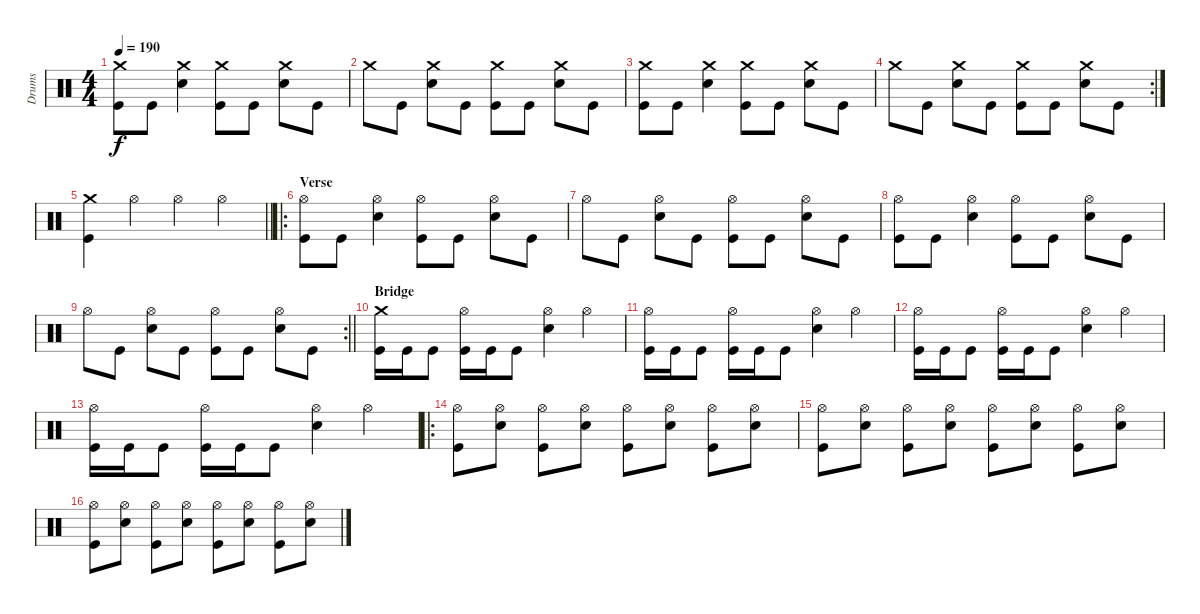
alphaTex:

\track ("Drums" "Drums") {instrument percussion}
\staff {score}
\articulation defaults
\ts (4 4)
\tempo 190
\clef neutral
\ks c
("Crash medium (hit)" "Kick (hit)").8{dy f} "Kick (hit)".8 ("Crash medium (hit)" "Snare (hit) 2").4 ("Crash medium (hit)" "Kick (hit)").8 "Kick (hit)".8 ("Crash medium (hit)" "Snare (hit) 2").8 "Kick (hit)".8 |
"Crash medium (hit)".8 "Kick (hit)".8 ("Crash medium (hit)" "Snare (hit) 2").8 "Kick (hit)".8 ("Crash medium (hit)" "Kick (hit)").8 "Kick (hit)".8 ("Crash medium (hit)" "Snare (hit) 2").8 "Kick (hit)".8 |
("Crash medium (hit)" "Kick (hit)").8 "Kick (hit)".8 ("Crash medium (hit)" "Snare (hit) 2").4 ("Crash medium (hit)" "Kick (hit)").8 "Kick (hit)".8 ("Crash medium (hit)" "Snare (hit) 2").8 "Kick (hit)".8 |
\rc 2 "Crash medium (hit)".8 "Kick (hit)".8
("Crash medium (hit)" "Snare (hit) 2").8 "Kick (hit)".8 ("Crash medium (hit)" "Kick (hit)").8 "Kick (hit)".8 ("Crash medium (hit)" "Snare (hit) 2").8 "Kick (hit)".8 |
\barLineRight lightlight
("Crash medium (hit)" "Kick (hit)").4 "Hi-Hat (open)".4 "Hi-Hat (open)".4 "Hi-Hat (open)".4 |
\ro
\section ("" "Verse")
("Hi-Hat (open)" "Kick (hit)").8 "Kick (hit)".8 ("Hi-Hat (open)" "Snare (hit) 2").4 ("Hi-Hat (open)" "Kick (hit)").8 "Kick (hit)".8 ("Hi-Hat (open)" "Snare (hit) 2").8 "Kick (hit)".8 |
"Hi-Hat (open)".8 "Kick (hit)".8 ("Hi-Hat (open)" "Snare (hit) 2").8 "Kick (hit)".8 ("Hi-Hat (open)" "Kick (hit)").8 "Kick (hit)".8 ("Hi-Hat (open)" "Snare (hit) 2").8 "Kick (hit)".8 |
("Hi-Hat (open)" "Kick (hit)").8 "Kick (hit)".8 ("Hi-Hat (open)" "Snare (hit) 2").4 ("Hi-Hat (open)" "Kick (hit)").8 "Kick (hit)".8 ("Hi-Hat (open)" "Snare (hit) 2").8 "Kick (hit)".8 |
\rc 2
\barLineRight lightlight "Hi-Hat (open)".8 "Kick (hit)".8
("Hi-Hat (open)" "Snare (hit) 2").8 "Kick (hit)".8 ("Hi-Hat (open)" "Kick (hit)").8 "Kick (hit)".8 ("Hi-Hat (open)" "Snare (hit) 2").8 "Kick (hit)".8 |
\section ("" "Bridge")
("Crash medium (hit)" "Kick (hit)").16 "Kick (hit)".16 "Kick (hit)".8 ("Hi-Hat (open)" "Kick (hit)").16 "Kick (hit)".16 "Kick (hit)".8 ("Hi-Hat (open)" "Snare (hit) 2").4 "Hi-Hat (open)".4 |
("Hi-Hat (open)" "Kick (hit)").16 "Kick (hit)".16 "Kick (hit)".8 ("Hi-Hat (open)" "Kick (hit)").16 "Kick (hit)".16 "Kick (hit)".8 ("Hi-Hat (open)" "Snare (hit) 2").4 "Hi-Hat (open)".4 |
("Hi-Hat (open)" "Kick (hit)").16 "Kick (hit)".16 "Kick (hit)".8 ("Hi-Hat (open)" "Kick (hit)").16 "Kick (hit)".16 "Kick (hit)".8 ("Hi-Hat (open)" "Snare (hit) 2").4 "Hi-Hat (open)".4 |
("Hi-Hat (open)" "Kick (hit)").16 "Kick (hit)".16 "Kick (hit)".8 ("Hi-Hat (open)" "Kick (hit)").16 "Kick (hit)".16 "Kick (hit)".8 ("Hi-Hat (open)" "Snare (hit) 2").4 "Hi-Hat (open)".4 |
\ro
("Hi-Hat (open)" "Kick (hit)").8 ("Hi-Hat (open)" "Snare (hit) 2").8 ("Hi-Hat (open)" "Kick (hit)").8 ("Hi-Hat (open)" "Snare (hit) 2").8 ("Hi-Hat (open)" "Kick (hit)").8 ("Hi-Hat (open)" "Snare (hit) 2").8 ("Hi-Hat (open)" "Kick (hit)").8 ("Hi-Hat (open)" "Snare (hit) 2").8 |
("Hi-Hat (open)" "Kick (hit)").8 ("Hi-Hat (open)" "Snare (hit) 2").8 ("Hi-Hat (open)" "Kick (hit)").8 ("Hi-Hat (open)" "Snare (hit) 2").8 ("Hi-Hat (open)" "Kick (hit)").8 ("Hi-Hat (open)" "Snare (hit) 2").8 ("Hi-Hat (open)" "Kick (hit)").8 ("Hi-Hat (open)" "Snare (hit) 2").8 |
("Hi-Hat (open)" "Kick (hit)").8 ("Hi-Hat (open)" "Snare (hit) 2").8 ("Hi-Hat (open)" "Kick (hit)").8 ("Hi-Hat (open)" "Snare (hit) 2").8 ("Hi-Hat (open)" "Kick (hit)").8 ("Hi-Hat (open)" "Snare (hit) 2").8 ("Hi-Hat (open)" "Kick (hit)").8 ("Hi-Hat (open)" "Snare (hit) 2").8
